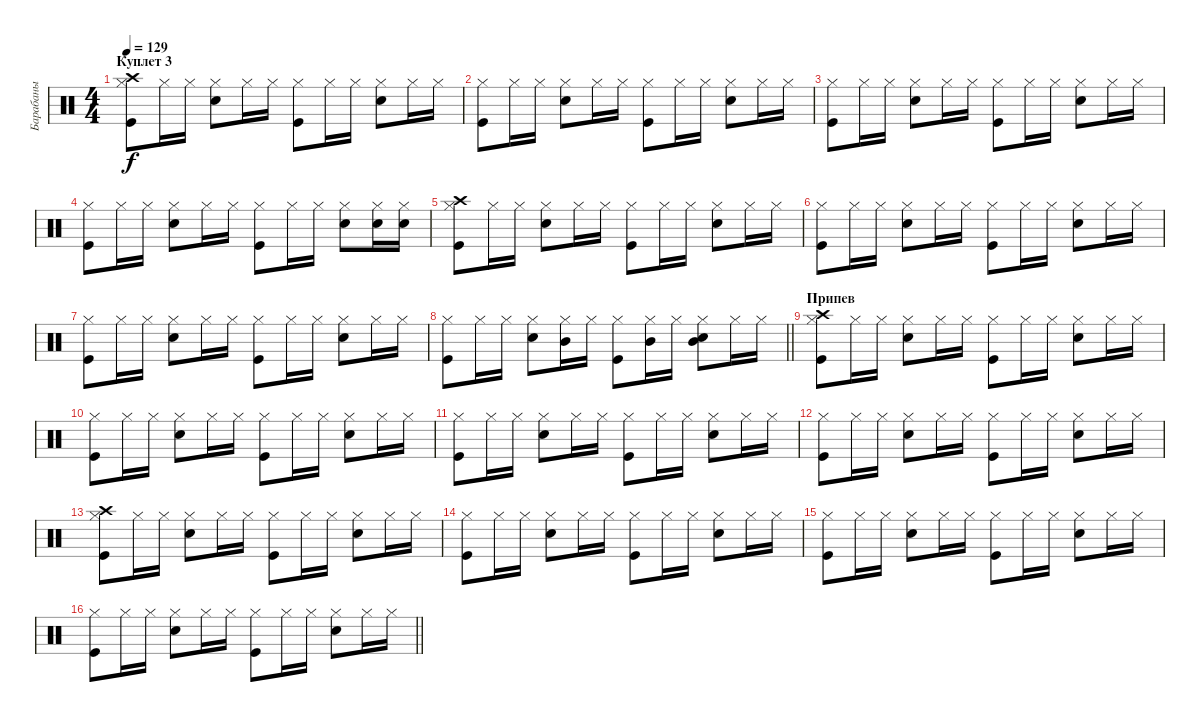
\track ("Барабаны" "Барабаны") {instrument percussion}
\staff {score}
\articulation defaults
\ts (4 4)
\section ("" "Куплет 3")
\tempo 129
\clef neutral
\ks c
("Kick (hit)" "Hi-Hat (closed)" "Crash high (hit)").8{dy f} "Hi-Hat (closed)".16 "Hi-Hat (closed)".16 ("Snare (hit) 2" "Hi-Hat (closed)").8 "Hi-Hat (closed)".16 "Hi-Hat (closed)".16 ("Kick (hit)" "Hi-Hat (closed)").8 "Hi-Hat (closed)".16 "Hi-Hat (closed)".16 ("Snare (hit) 2" "Hi-Hat (closed)").8 "Hi-Hat (closed)".16 "Hi-Hat (closed)".16 |
("Kick (hit)" "Hi-Hat (closed)").8 "Hi-Hat (closed)".16 "Hi-Hat (closed)".16 ("Snare (hit) 2" "Hi-Hat (closed)").8 "Hi-Hat (closed)".16 "Hi-Hat (closed)".16 ("Kick (hit)" "Hi-Hat (closed)").8 "Hi-Hat (closed)".16 "Hi-Hat (closed)".16 ("Snare (hit) 2" "Hi-Hat (closed)").8 "Hi-Hat (closed)".16 "Hi-Hat (closed)".16 |
("Kick (hit)" "Hi-Hat (closed)").8 "Hi-Hat (closed)".16 "Hi-Hat (closed)".16 ("Snare (hit) 2" "Hi-Hat (closed)").8 "Hi-Hat (closed)".16 "Hi-Hat (closed)".16 ("Kick (hit)" "Hi-Hat (closed)").8 "Hi-Hat (closed)".16 "Hi-Hat (closed)".16 ("Snare (hit) 2" "Hi-Hat (closed)").8 "Hi-Hat (closed)".16 "Hi-Hat (closed)".16 |
("Kick (hit)" "Hi-Hat (closed)").8 "Hi-Hat (closed)".16 "Hi-Hat (closed)".16 ("Snare (hit) 2" "Hi-Hat (closed)").8 "Hi-Hat (closed)".16 "Hi-Hat (closed)".16 ("Kick (hit)" "Hi-Hat (closed)").8 "Hi-Hat (closed)".16 "Hi-Hat (closed)".16 ("Snare (hit) 2" "Hi-Hat (closed)").8 ("Snare (hit) 2" "Hi-Hat (closed)").16 ("Snare (hit) 2" "Hi-Hat (closed)").16 |
("Kick (hit)" "Hi-Hat (closed)" "Crash high (hit)").8 "Hi-Hat (closed)".16 "Hi-Hat (closed)".16 ("Snare (hit) 2" "Hi-Hat (closed)").8 "Hi-Hat (closed)".16 "Hi-Hat (closed)".16 ("Kick (hit)" "Hi-Hat (closed)").8 "Hi-Hat (closed)".16 "Hi-Hat (closed)".16 ("Snare (hit) 2" "Hi-Hat (closed)").8 "Hi-Hat (closed)".16 "Hi-Hat (closed)".16 |
("Kick (hit)" "Hi-Hat (closed)").8 "Hi-Hat (closed)".16 "Hi-Hat (closed)".16 ("Snare (hit) 2" "Hi-Hat (closed)").8 "Hi-Hat (closed)".16 "Hi-Hat (closed)".16 ("Kick (hit)" "Hi-Hat (closed)").8 "Hi-Hat (closed)".16 "Hi-Hat (closed)".16 ("Snare (hit) 2" "Hi-Hat (closed)").8 "Hi-Hat (closed)".16 "Hi-Hat (closed)".16 |
("Kick (hit)" "Hi-Hat (closed)").8 "Hi-Hat (closed)".16 "Hi-Hat (closed)".16 ("Snare (hit) 2" "Hi-Hat (closed)").8 "Hi-Hat (closed)".16 "Hi-Hat (closed)".16 ("Kick (hit)" "Hi-Hat (closed)").8 "Hi-Hat (closed)".16 "Hi-Hat (closed)".16 ("Snare (hit) 2" "Hi-Hat (closed)").8 "Hi-Hat (closed)".16 "Hi-Hat (closed)".16 |
\barLineRight lightlight
("Kick (hit)" "Hi-Hat (closed)").8 "Hi-Hat (closed)".16 "Hi-Hat (closed)".16 ("Snare (hit) 2" "Hi-Hat (closed)").8 ("Hi-Hat (closed)" "Mid Tom (hit)").16 "Hi-Hat (closed)".16 ("Kick (hit)" "Hi-Hat (closed)").8 ("Hi-Hat (closed)" "Mid Tom (hit)").16 "Hi-Hat (closed)".16 ("Snare (hit) 2" "Hi-Hat (closed)" "Mid Tom (hit)").8 "Hi-Hat (closed)".16 "Hi-Hat (closed)".16 |
\section ("" "Припев")
("Kick (hit)" "Hi-Hat (closed)" "Crash high (hit)").8 "Hi-Hat (closed)".16 "Hi-Hat (closed)".16 ("Snare (hit) 2" "Hi-Hat (closed)").8 "Hi-Hat (closed)".16 "Hi-Hat (closed)".16 ("Kick (hit)" "Hi-Hat (closed)").8 "Hi-Hat (closed)".16 "Hi-Hat (closed)".16 ("Snare (hit) 2" "Hi-Hat (closed)").8 "Hi-Hat (closed)".16 "Hi-Hat (closed)".16 |
("Kick (hit)" "Hi-Hat (closed)").8 "Hi-Hat (closed)".16 "Hi-Hat (closed)".16 ("Snare (hit) 2" "Hi-Hat (closed)").8 "Hi-Hat (closed)".16 "Hi-Hat (closed)".16 ("Kick (hit)" "Hi-Hat (closed)").8 "Hi-Hat (closed)".16 "Hi-Hat (closed)".16 ("Snare (hit) 2" "Hi-Hat (closed)").8 "Hi-Hat (closed)".16 "Hi-Hat (closed)".16 |
("Kick (hit)" "Hi-Hat (closed)").8 "Hi-Hat (closed)".16 "Hi-Hat (closed)".16 ("Snare (hit) 2" "Hi-Hat (closed)").8 "Hi-Hat (closed)".16 "Hi-Hat (closed)".16 ("Kick (hit)" "Hi-Hat (closed)").8 "Hi-Hat (closed)".16 "Hi-Hat (closed)".16 ("Snare (hit) 2" "Hi-Hat (closed)").8 "Hi-Hat (closed)".16 "Hi-Hat (closed)".16 |
("Kick (hit)" "Hi-Hat (closed)").8 "Hi-Hat (closed)".16 "Hi-Hat (closed)".16 ("Snare (hit) 2" "Hi-Hat (closed)").8 "Hi-Hat (closed)".16 "Hi-Hat (closed)".16 ("Kick (hit)" "Hi-Hat (closed)").8 "Hi-Hat (closed)".16 "Hi-Hat (closed)".16 ("Snare (hit) 2" "Hi-Hat (closed)").8 "Hi-Hat (closed)".16 "Hi-Hat (closed)".16 |
("Kick (hit)" "Hi-Hat (closed)" "Crash high (hit)").8 "Hi-Hat (closed)".16 "Hi-Hat (closed)".16 ("Snare (hit) 2" "Hi-Hat (closed)").8 "Hi-Hat (closed)".16 "Hi-Hat (closed)".16 ("Kick (hit)" "Hi-Hat (closed)").8 "Hi-Hat (closed)".16 "Hi-Hat (closed)".16 ("Snare (hit) 2" "Hi-Hat (closed)").8 "Hi-Hat (closed)".16 "Hi-Hat (closed)".16 |
("Kick (hit)" "Hi-Hat (closed)").8 "Hi-Hat (closed)".16 "Hi-Hat (closed)".16 ("Snare (hit) 2" "Hi-Hat (closed)").8 "Hi-Hat (closed)".16 "Hi-Hat (closed)".16 ("Kick (hit)" "Hi-Hat (closed)").8 "Hi-Hat (closed)".16 "Hi-Hat (closed)".16 ("Snare (hit) 2" "Hi-Hat (closed)").8 "Hi-Hat (closed)".16 "Hi-Hat (closed)".16 |
("Kick (hit)" "Hi-Hat (closed)").8 "Hi-Hat (closed)".16 "Hi-Hat (closed)".16 ("Snare (hit) 2" "Hi-Hat (closed)").8 "Hi-Hat (closed)".16 "Hi-Hat (closed)".16 ("Kick (hit)" "Hi-Hat (closed)").8 "Hi-Hat (closed)".16 "Hi-Hat (closed)".16 ("Snare (hit) 2" "Hi-Hat (closed)").8 "Hi-Hat (closed)".16 "Hi-Hat (closed)".16 |
\barLineRight lightlight
("Kick (hit)" "Hi-Hat (closed)").8 "Hi-Hat (closed)".16 "Hi-Hat (closed)".16 ("Snare (hit) 2" "Hi-Hat (closed)").8 "Hi-Hat (closed)".16 "Hi-Hat (closed)".16 ("Kick (hit)" "Hi-Hat (closed)").8 "Hi-Hat (closed)".16 "Hi-Hat (closed)".16 ("Snare (hit) 2" "Hi-Hat (closed)").8 "Hi-Hat (closed)".16 "Hi-Hat (closed)".16
